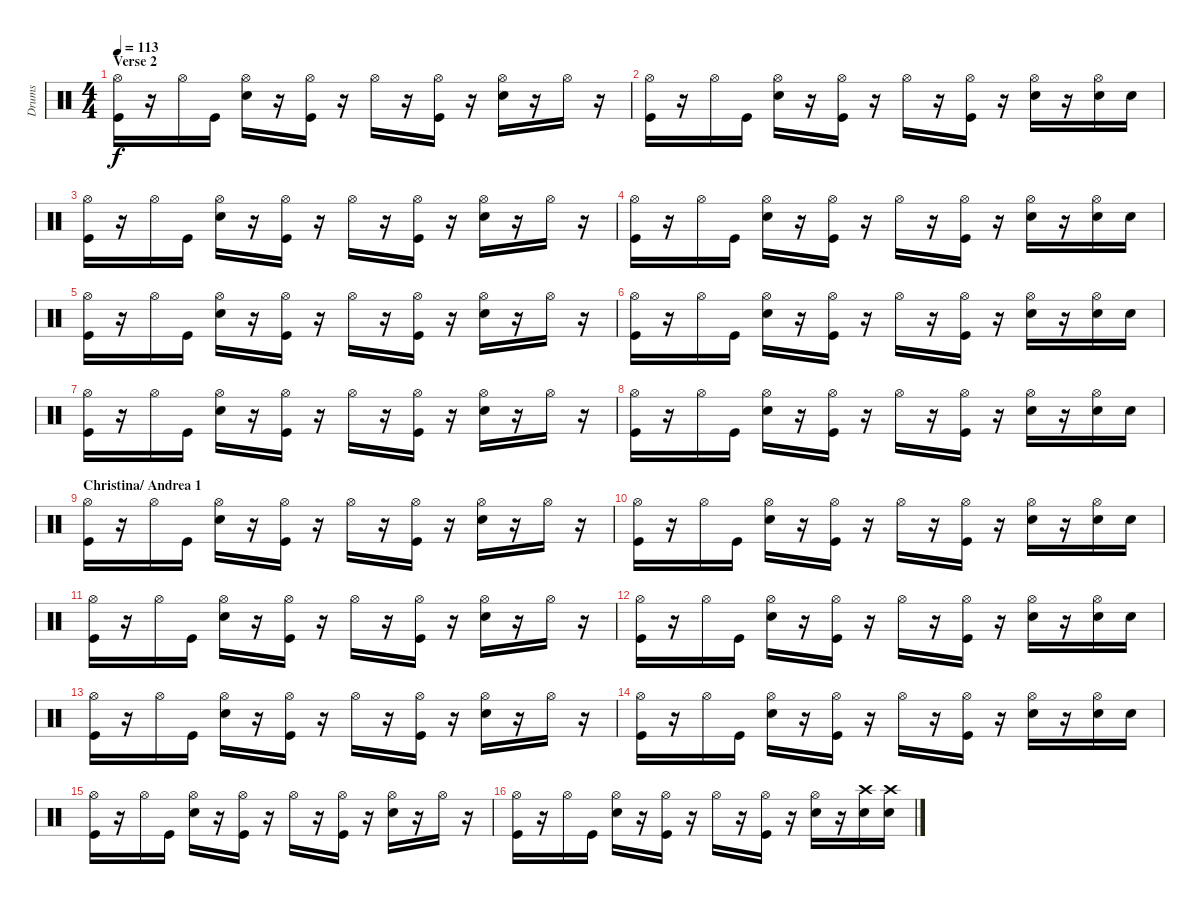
\track ("Drums" "Drums") {instrument percussion}
\staff {score}
\articulation defaults
\ts (4 4)
\section ("" "Verse 2")
\tempo 113
\clef neutral
\ks c
("Hi-Hat (open)" "Kick (hit)").16{dy f} r.16 "Hi-Hat (open)".16 "Kick (hit)".16 ("Hi-Hat (open)" "Snare (hit) 2").16 r.16 ("Hi-Hat (open)" "Kick (hit)").16 r.16 "Hi-Hat (open)".16 r.16 ("Hi-Hat (open)" "Kick (hit)").16 r.16 ("Hi-Hat (open)" "Snare (hit) 2").16 r.16 "Hi-Hat (open)".16 r.16 |
("Hi-Hat (open)" "Kick (hit)").16 r.16 "Hi-Hat (open)".16 "Kick (hit)".16 ("Hi-Hat (open)" "Snare (hit) 2").16 r.16 ("Hi-Hat (open)" "Kick (hit)").16 r.16 "Hi-Hat (open)".16 r.16 ("Hi-Hat (open)" "Kick (hit)").16 r.16 ("Hi-Hat (open)" "Snare (hit) 2").16 r.16 ("Hi-Hat (open)" "Snare (hit) 2").16 "Snare (hit) 2".16 |
("Hi-Hat (open)" "Kick (hit)").16 r.16 "Hi-Hat (open)".16 "Kick (hit)".16 ("Hi-Hat (open)" "Snare (hit) 2").16 r.16 ("Hi-Hat (open)" "Kick (hit)").16 r.16 "Hi-Hat (open)".16 r.16 ("Hi-Hat (open)" "Kick (hit)").16 r.16 ("Hi-Hat (open)" "Snare (hit) 2").16 r.16 "Hi-Hat (open)".16 r.16 |
("Hi-Hat (open)" "Kick (hit)").16 r.16 "Hi-Hat (open)".16 "Kick (hit)".16 ("Hi-Hat (open)" "Snare (hit) 2").16 r.16 ("Hi-Hat (open)" "Kick (hit)").16 r.16 "Hi-Hat (open)".16 r.16 ("Hi-Hat (open)" "Kick (hit)").16 r.16 ("Hi-Hat (open)" "Snare (hit) 2").16 r.16 ("Hi-Hat (open)" "Snare (hit) 2").16 "Snare (hit) 2".16 |
("Hi-Hat (open)" "Kick (hit)").16 r.16 "Hi-Hat (open)".16 "Kick (hit)".16 ("Hi-Hat (open)" "Snare (hit) 2").16 r.16 ("Hi-Hat (open)" "Kick (hit)").16 r.16 "Hi-Hat (open)".16 r.16 ("Hi-Hat (open)" "Kick (hit)").16 r.16 ("Hi-Hat (open)" "Snare (hit) 2").16 r.16 "Hi-Hat (open)".16 r.16 |
("Hi-Hat (open)" "Kick (hit)").16 r.16 "Hi-Hat (open)".16 "Kick (hit)".16 ("Hi-Hat (open)" "Snare (hit) 2").16 r.16 ("Hi-Hat (open)" "Kick (hit)").16 r.16 "Hi-Hat (open)".16 r.16 ("Hi-Hat (open)" "Kick (hit)").16 r.16 ("Hi-Hat (open)" "Snare (hit) 2").16 r.16 ("Hi-Hat (open)" "Snare (hit) 2").16 "Snare (hit) 2".16 |
("Hi-Hat (open)" "Kick (hit)").16 r.16 "Hi-Hat (open)".16 "Kick (hit)".16 ("Hi-Hat (open)" "Snare (hit) 2").16 r.16 ("Hi-Hat (open)" "Kick (hit)").16 r.16 "Hi-Hat (open)".16 r.16 ("Hi-Hat (open)" "Kick (hit)").16 r.16 ("Hi-Hat (open)" "Snare (hit) 2").16 r.16 "Hi-Hat (open)".16 r.16 |
("Hi-Hat (open)" "Kick (hit)").16 r.16 "Hi-Hat (open)".16 "Kick (hit)".16 ("Hi-Hat (open)" "Snare (hit) 2").16 r.16 ("Hi-Hat (open)" "Kick (hit)").16 r.16 "Hi-Hat (open)".16 r.16 ("Hi-Hat (open)" "Kick (hit)").16 r.16 ("Hi-Hat (open)" "Snare (hit) 2").16 r.16 ("Hi-Hat (open)" "Snare (hit) 2").16 "Snare (hit) 2".16 |
\section ("" "Christina/ Andrea 1")
("Hi-Hat (open)" "Kick (hit)").16 r.16 "Hi-Hat (open)".16 "Kick (hit)".16 ("Hi-Hat (open)" "Snare (hit) 2").16 r.16 ("Hi-Hat (open)" "Kick (hit)").16 r.16 "Hi-Hat (open)".16 r.16 ("Hi-Hat (open)" "Kick (hit)").16 r.16 ("Hi-Hat (open)" "Snare (hit) 2").16 r.16 "Hi-Hat (open)".16 r.16 |
("Hi-Hat (open)" "Kick (hit)").16 r.16 "Hi-Hat (open)".16 "Kick (hit)".16 ("Hi-Hat (open)" "Snare (hit) 2").16 r.16 ("Hi-Hat (open)" "Kick (hit)").16 r.16 "Hi-Hat (open)".16 r.16 ("Hi-Hat (open)" "Kick (hit)").16 r.16 ("Hi-Hat (open)" "Snare (hit) 2").16 r.16 ("Hi-Hat (open)" "Snare (hit) 2").16 "Snare (hit) 2".16 |
("Hi-Hat (open)" "Kick (hit)").16 r.16 "Hi-Hat (open)".16 "Kick (hit)".16 ("Hi-Hat (open)" "Snare (hit) 2").16 r.16 ("Hi-Hat (open)" "Kick (hit)").16 r.16 "Hi-Hat (open)".16 r.16 ("Hi-Hat (open)" "Kick (hit)").16 r.16 ("Hi-Hat (open)" "Snare (hit) 2").16 r.16 "Hi-Hat (open)".16 r.16 |
("Hi-Hat (open)" "Kick (hit)").16 r.16 "Hi-Hat (open)".16 "Kick (hit)".16 ("Hi-Hat (open)" "Snare (hit) 2").16 r.16 ("Hi-Hat (open)" "Kick (hit)").16 r.16 "Hi-Hat (open)".16 r.16 ("Hi-Hat (open)" "Kick (hit)").16 r.16 ("Hi-Hat (open)" "Snare (hit) 2").16 r.16 ("Hi-Hat (open)" "Snare (hit) 2").16 "Snare (hit) 2".16 |
("Hi-Hat (open)" "Kick (hit)").16 r.16 "Hi-Hat (open)".16 "Kick (hit)".16 ("Hi-Hat (open)" "Snare (hit) 2").16 r.16 ("Hi-Hat (open)" "Kick (hit)").16 r.16 "Hi-Hat (open)".16 r.16 ("Hi-Hat (open)" "Kick (hit)").16 r.16 ("Hi-Hat (open)" "Snare (hit) 2").16 r.16 "Hi-Hat (open)".16 r.16 |
("Hi-Hat (open)" "Kick (hit)").16 r.16 "Hi-Hat (open)".16 "Kick (hit)".16 ("Hi-Hat (open)" "Snare (hit) 2").16 r.16 ("Hi-Hat (open)" "Kick (hit)").16 r.16 "Hi-Hat (open)".16 r.16 ("Hi-Hat (open)" "Kick (hit)").16 r.16 ("Hi-Hat (open)" "Snare (hit) 2").16 r.16 ("Hi-Hat (open)" "Snare (hit) 2").16 "Snare (hit) 2".16 |
("Hi-Hat (open)" "Kick (hit)").16 r.16 "Hi-Hat (open)".16 "Kick (hit)".16 ("Hi-Hat (open)" "Snare (hit) 2").16 r.16 ("Hi-Hat (open)" "Kick (hit)").16 r.16 "Hi-Hat (open)".16 r.16 ("Hi-Hat (open)" "Kick (hit)").16 r.16 ("Hi-Hat (open)" "Snare (hit) 2").16 r.16 "Hi-Hat (open)".16 r.16 |
("Hi-Hat (open)" "Kick (hit)").16 r.16 "Hi-Hat (open)".16 "Kick (hit)".16 ("Hi-Hat (open)" "Snare (hit) 2").16 r.16 ("Hi-Hat (open)" "Kick (hit)").16 r.16 "Hi-Hat (open)".16 r.16 ("Hi-Hat (open)" "Kick (hit)").16 r.16 ("Hi-Hat (open)" "Snare (hit) 2").16 r.16 ("Crash high (hit)" "Snare (hit) 2").16 ("Crash high (hit)" "Snare (hit) 2").16
